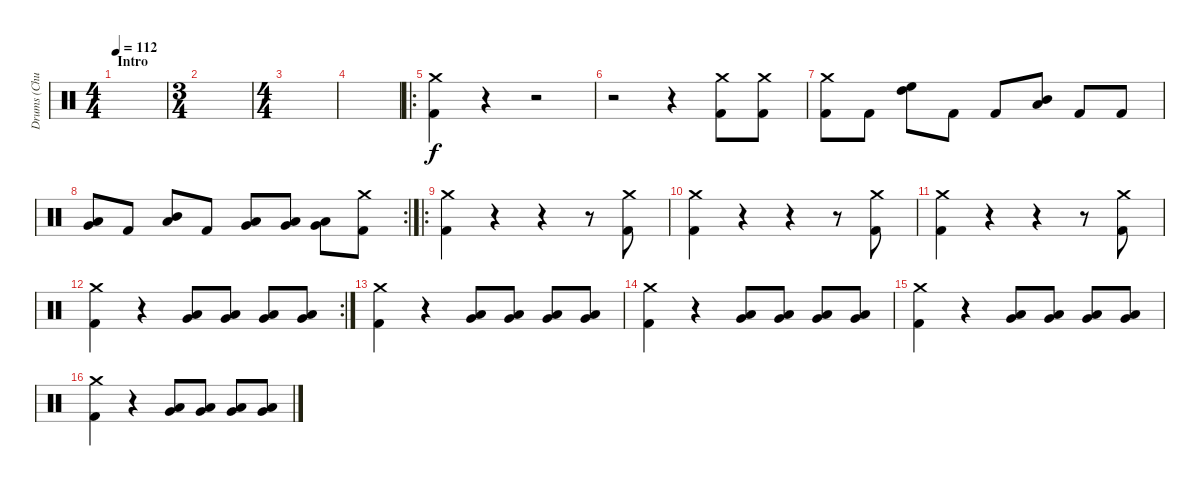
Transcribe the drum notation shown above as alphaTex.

\track ("Drums (Chuck Behler)" "Drums (Chu") {instrument percussion}
\staff {score}
\articulation defaults
\ts (4 4)
\section ("" "Intro")
\tempo 112
\clef neutral
\ks c
|
\ts (3 4)
|
\ts (4 4)
|
|
\ro
("Crash medium (hit)" "Kick (hit) 2").4 r.4 r.2 |
r.2 r.4 ("Crash medium (hit)" "Kick (hit) 2").8 ("Crash medium (hit)" "Kick (hit) 2").8 |
("Crash medium (hit)" "Kick (hit) 2").8 "Kick (hit) 2".8 ("High Floor Tom (hit)" "High Tom (hit)").8 "Kick (hit) 2".8 "Kick (hit) 2".8 ("Mid Tom (hit)" "Low Tom (hit)").8 "Kick (hit) 2".8 "Kick (hit) 2".8 |
\rc 2
("Very Low Tom (hit)" "Low Floor Tom (hit)").8 "Kick (hit) 2".8 ("Mid Tom (hit)" "Low Tom (hit)").8 "Kick (hit) 2".8 ("Low Tom (hit)" "Very Low Tom (hit)").8 ("Low Tom (hit)" "Very Low Tom (hit)").8 ("Low Tom (hit)" "Very Low Tom (hit)").8 ("Crash medium (hit)" "Kick (hit) 2").8 |
\ro
("Crash medium (hit)" "Kick (hit) 2").4 r.4 r.4 r.8 ("Crash medium (hit)" "Kick (hit) 2").8 |
("Crash medium (hit)" "Kick (hit) 2").4 r.4 r.4 r.8 ("Crash medium (hit)" "Kick (hit) 2").8 |
("Crash medium (hit)" "Kick (hit) 2").4 r.4 r.4 r.8 ("Crash medium (hit)" "Kick (hit) 2").8 |
\rc 2
("Crash medium (hit)" "Kick (hit) 2").4 r.4 ("Low Tom (hit)" "Very Low Tom (hit)").8 ("Low Tom (hit)" "Very Low Tom (hit)").8 ("Low Tom (hit)" "Very Low Tom (hit)").8 ("Low Tom (hit)" "Very Low Tom (hit)").8 |
("Crash medium (hit)" "Kick (hit) 2").4 r.4 ("Low Tom (hit)" "Very Low Tom (hit)").8 ("Low Tom (hit)" "Very Low Tom (hit)").8 ("Low Tom (hit)" "Very Low Tom (hit)").8 ("Low Tom (hit)" "Very Low Tom (hit)").8 |
("Crash medium (hit)" "Kick (hit) 2").4 r.4 ("Low Tom (hit)" "Very Low Tom (hit)").8 ("Low Tom (hit)" "Very Low Tom (hit)").8 ("Low Tom (hit)" "Very Low Tom (hit)").8 ("Low Tom (hit)" "Very Low Tom (hit)").8 |
("Crash medium (hit)" "Kick (hit) 2").4 r.4 ("Low Tom (hit)" "Very Low Tom (hit)").8 ("Low Tom (hit)" "Very Low Tom (hit)").8 ("Low Tom (hit)" "Very Low Tom (hit)").8 ("Low Tom (hit)" "Very Low Tom (hit)").8 |
("Crash medium (hit)" "Kick (hit) 2").4 r.4 ("Low Tom (hit)" "Very Low Tom (hit)").8 ("Low Tom (hit)" "Very Low Tom (hit)").8 ("Low Tom (hit)" "Very Low Tom (hit)").8 ("Low Tom (hit)" "Very Low Tom (hit)").8
